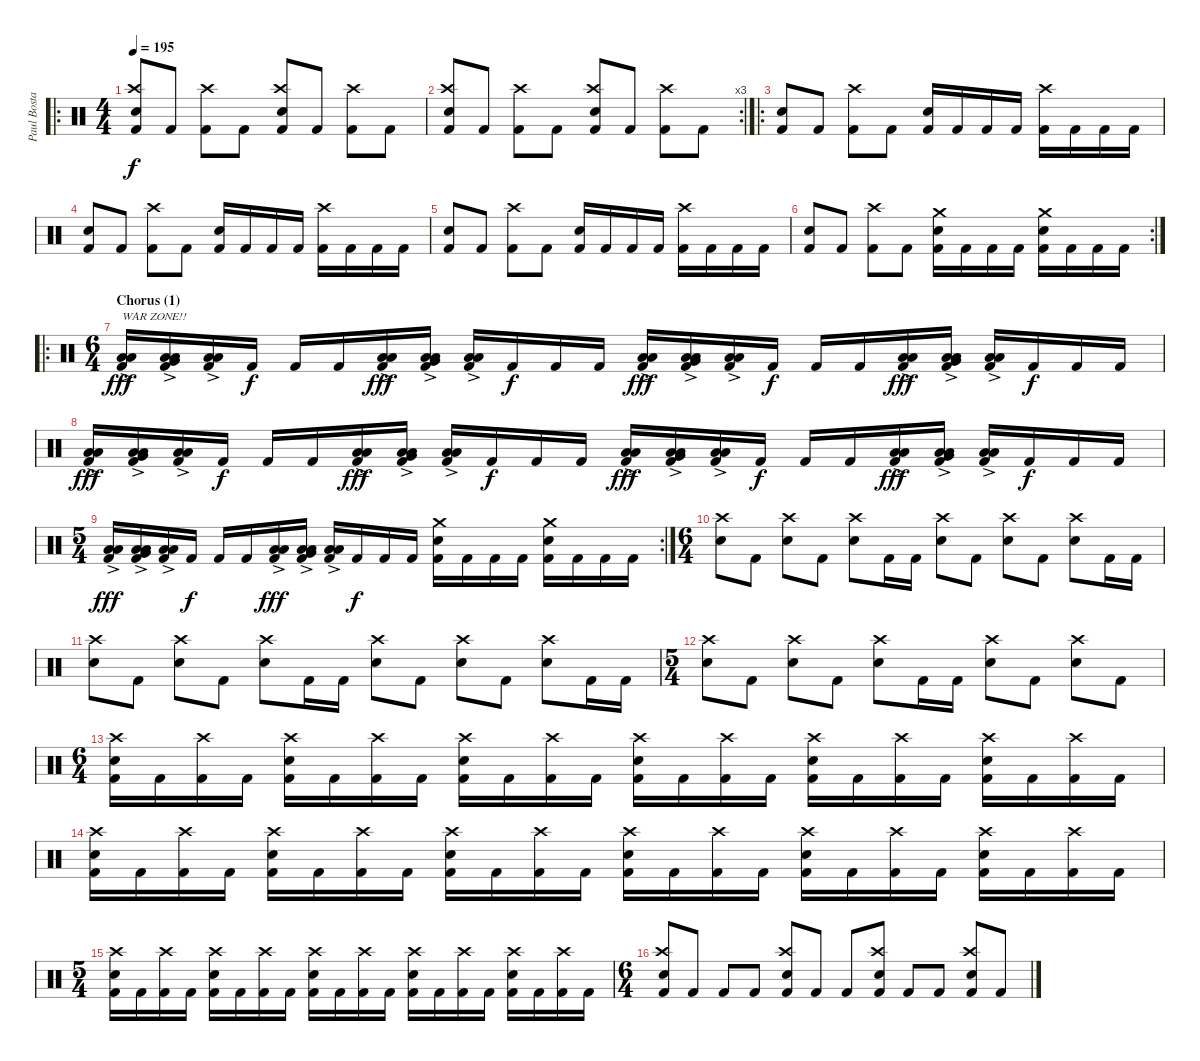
\track ("Paul Bostaph" "Paul Bosta") {instrument percussion}
\staff {score}
\articulation defaults
\ro
\ts (4 4)
\tempo 195
\clef neutral
\ks c
("Kick (hit) 2" "Crash high (hit)" "Snare (hit) 2").8{dy f} "Kick (hit) 2".8 ("Kick (hit) 2" "Crash high (hit)").8 "Kick (hit) 2".8 ("Kick (hit) 2" "Crash high (hit)" "Snare (hit) 2").8 "Kick (hit) 2".8 ("Kick (hit) 2" "Crash high (hit)").8 "Kick (hit) 2".8 |
\rc 3
("Kick (hit) 2" "Crash high (hit)" "Snare (hit) 2").8 "Kick (hit) 2".8 ("Kick (hit) 2" "Crash high (hit)").8 "Kick (hit) 2".8 ("Kick (hit) 2" "Crash high (hit)" "Snare (hit) 2").8 "Kick (hit) 2".8 ("Kick (hit) 2" "Crash high (hit)").8 "Kick (hit) 2".8 |
\ro
("Kick (hit) 2" "Snare (hit) 2").8 "Kick (hit) 2".8 ("Kick (hit) 2" "Crash high (hit)").8 "Kick (hit) 2".8 ("Kick (hit) 2" "Snare (hit) 2").16 "Kick (hit) 2".16 "Kick (hit) 2".16 "Kick (hit) 2".16 ("Kick (hit) 2" "Crash high (hit)").16 "Kick (hit) 2".16 "Kick (hit) 2".16 "Kick (hit) 2".16 |
("Kick (hit) 2" "Snare (hit) 2").8 "Kick (hit) 2".8 ("Kick (hit) 2" "Crash high (hit)").8 "Kick (hit) 2".8 ("Kick (hit) 2" "Snare (hit) 2").16 "Kick (hit) 2".16 "Kick (hit) 2".16 "Kick (hit) 2".16 ("Kick (hit) 2" "Crash high (hit)").16 "Kick (hit) 2".16 "Kick (hit) 2".16 "Kick (hit) 2".16 |
("Kick (hit) 2" "Snare (hit) 2").8 "Kick (hit) 2".8 ("Kick (hit) 2" "Crash high (hit)").8 "Kick (hit) 2".8 ("Kick (hit) 2" "Snare (hit) 2").16 "Kick (hit) 2".16 "Kick (hit) 2".16 "Kick (hit) 2".16 ("Kick (hit) 2" "Crash high (hit)").16 "Kick (hit) 2".16 "Kick (hit) 2".16 "Kick (hit) 2".16 |
\rc 2
("Kick (hit) 2" "Snare (hit) 2").8 "Kick (hit) 2".8 ("Kick (hit) 2" "Crash high (hit)").8 "Kick (hit) 2".8 ("Kick (hit) 2" "Crash medium (hit)" "Snare (hit) 2").16 "Kick (hit) 2".16 "Kick (hit) 2".16 "Kick (hit) 2".16 ("Kick (hit) 2" "Crash medium (hit)" "Snare (hit) 2").16 "Kick (hit) 2".16 "Kick (hit) 2".16 "Kick (hit) 2".16 |
\ro
\ts (6 4)
\section ("" "Chorus (1)")
("Kick (hit) 2" "Low Floor Tom (hit)"{ac} "Low Floor Tom (hit)"{ac}).16{txt "WAR ZONE!!" dy fff} ("Kick (hit) 2" "Very Low Tom (hit)" "Low Floor Tom (hit)"{ac} "Low Floor Tom (hit)"{ac}).16 ("Kick (hit) 2" "Low Floor Tom (hit)"{ac} "Low Floor Tom (hit)"{ac}).16 "Kick (hit) 2".16{dy f} "Kick (hit) 2".16 "Kick (hit) 2".16 ("Kick (hit) 2" "Low Floor Tom (hit)"{ac} "Low Floor Tom (hit)"{ac}).16{dy fff} ("Kick (hit) 2" "Very Low Tom (hit)" "Low Floor Tom (hit)"{ac} "Low Floor Tom (hit)"{ac}).16 ("Kick (hit) 2" "Low Floor Tom (hit)"{ac} "Low Floor Tom (hit)"{ac}).16 "Kick (hit) 2".16{dy f} "Kick (hit) 2".16 "Kick (hit) 2".16 ("Kick (hit) 2" "Low Floor Tom (hit)"{ac} "Low Floor Tom (hit)"{ac}).16{dy fff} ("Kick (hit) 2" "Very Low Tom (hit)" "Low Floor Tom (hit)"{ac} "Low Floor Tom (hit)"{ac}).16 ("Kick (hit) 2" "Low Floor Tom (hit)"{ac} "Low Floor Tom (hit)"{ac}).16 "Kick (hit) 2".16{dy f} "Kick (hit) 2".16 "Kick (hit) 2".16 ("Kick (hit) 2" "Low Floor Tom (hit)"{ac} "Low Floor Tom (hit)"{ac}).16{dy fff} ("Kick (hit) 2" "Very Low Tom (hit)" "Low Floor Tom (hit)"{ac} "Low Floor Tom (hit)"{ac}).16 ("Kick (hit) 2" "Low Floor Tom (hit)"{ac} "Low Floor Tom (hit)"{ac}).16 "Kick (hit) 2".16{dy f} "Kick (hit) 2".16 "Kick (hit) 2".16 |
("Kick (hit) 2" "Low Floor Tom (hit)"{ac} "Low Floor Tom (hit)"{ac}).16{dy fff} ("Kick (hit) 2" "Very Low Tom (hit)" "Low Floor Tom (hit)"{ac} "Low Floor Tom (hit)"{ac}).16 ("Kick (hit) 2" "Low Floor Tom (hit)"{ac} "Low Floor Tom (hit)"{ac}).16 "Kick (hit) 2".16{dy f} "Kick (hit) 2".16 "Kick (hit) 2".16 ("Kick (hit) 2" "Low Floor Tom (hit)"{ac} "Low Floor Tom (hit)"{ac}).16{dy fff} ("Kick (hit) 2" "Very Low Tom (hit)" "Low Floor Tom (hit)"{ac} "Low Floor Tom (hit)"{ac}).16 ("Kick (hit) 2" "Low Floor Tom (hit)"{ac} "Low Floor Tom (hit)"{ac}).16 "Kick (hit) 2".16{dy f} "Kick (hit) 2".16 "Kick (hit) 2".16 ("Kick (hit) 2" "Low Floor Tom (hit)"{ac} "Low Floor Tom (hit)"{ac}).16{dy fff} ("Kick (hit) 2" "Very Low Tom (hit)" "Low Floor Tom (hit)"{ac} "Low Floor Tom (hit)"{ac}).16 ("Kick (hit) 2" "Low Floor Tom (hit)"{ac} "Low Floor Tom (hit)"{ac}).16 "Kick (hit) 2".16{dy f} "Kick (hit) 2".16 "Kick (hit) 2".16 ("Kick (hit) 2" "Low Floor Tom (hit)"{ac} "Low Floor Tom (hit)"{ac}).16{dy fff} ("Kick (hit) 2" "Very Low Tom (hit)" "Low Floor Tom (hit)"{ac} "Low Floor Tom (hit)"{ac}).16 ("Kick (hit) 2" "Low Floor Tom (hit)"{ac} "Low Floor Tom (hit)"{ac}).16 "Kick (hit) 2".16{dy f} "Kick (hit) 2".16 "Kick (hit) 2".16 |
\rc 2
\ts (5 4)
("Kick (hit) 2" "Low Floor Tom (hit)"{ac} "Low Floor Tom (hit)"{ac}).16{dy fff} ("Kick (hit) 2" "Very Low Tom (hit)" "Low Floor Tom (hit)"{ac} "Low Floor Tom (hit)"{ac}).16 ("Kick (hit) 2" "Low Floor Tom (hit)"{ac} "Low Floor Tom (hit)"{ac}).16 "Kick (hit) 2".16{dy f} "Kick (hit) 2".16 "Kick (hit) 2".16 ("Kick (hit) 2" "Low Floor Tom (hit)"{ac} "Low Floor Tom (hit)"{ac}).16{dy fff} ("Kick (hit) 2" "Very Low Tom (hit)" "Low Floor Tom (hit)"{ac} "Low Floor Tom (hit)"{ac}).16 ("Kick (hit) 2" "Low Floor Tom (hit)"{ac} "Low Floor Tom (hit)"{ac}).16 "Kick (hit) 2".16{dy f} "Kick (hit) 2".16 "Kick (hit) 2".16 ("Kick (hit) 2" "Crash medium (hit)" "Snare (hit) 2").16 "Kick (hit) 2".16 "Kick (hit) 2".16 "Kick (hit) 2".16 ("Kick (hit) 2" "Crash medium (hit)" "Snare (hit) 2").16 "Kick (hit) 2".16 "Kick (hit) 2".16 "Kick (hit) 2".16 |
\ts (6 4)
("Crash high (hit)" "Snare (hit) 2").8 "Kick (hit) 2".8 ("Crash high (hit)" "Snare (hit) 2").8 "Kick (hit) 2".8 ("Crash high (hit)" "Snare (hit) 2").8 "Kick (hit) 2".16 "Kick (hit) 2".16 ("Crash high (hit)" "Snare (hit) 2").8 "Kick (hit) 2".8 ("Crash high (hit)" "Snare (hit) 2").8 "Kick (hit) 2".8 ("Crash high (hit)" "Snare (hit) 2").8 "Kick (hit) 2".16 "Kick (hit) 2".16 |
("Crash high (hit)" "Snare (hit) 2").8 "Kick (hit) 2".8 ("Crash high (hit)" "Snare (hit) 2").8 "Kick (hit) 2".8 ("Crash high (hit)" "Snare (hit) 2").8 "Kick (hit) 2".16 "Kick (hit) 2".16 ("Crash high (hit)" "Snare (hit) 2").8 "Kick (hit) 2".8 ("Crash high (hit)" "Snare (hit) 2").8 "Kick (hit) 2".8 ("Crash high (hit)" "Snare (hit) 2").8 "Kick (hit) 2".16 "Kick (hit) 2".16 |
\ts (5 4)
("Crash high (hit)" "Snare (hit) 2").8 "Kick (hit) 2".8 ("Crash high (hit)" "Snare (hit) 2").8 "Kick (hit) 2".8 ("Crash high (hit)" "Snare (hit) 2").8 "Kick (hit) 2".16 "Kick (hit) 2".16 ("Crash high (hit)" "Snare (hit) 2").8 "Kick (hit) 2".8 ("Crash high (hit)" "Snare (hit) 2").8 "Kick (hit) 2".8 |
\ts (6 4)
("Kick (hit) 2" "Crash high (hit)" "Snare (hit) 2").16 "Kick (hit) 2".16 ("Kick (hit) 2" "Crash high (hit)").16 "Kick (hit) 2".16 ("Kick (hit) 2" "Crash high (hit)" "Snare (hit) 2").16 "Kick (hit) 2".16 ("Kick (hit) 2" "Crash high (hit)").16 "Kick (hit) 2".16 ("Kick (hit) 2" "Crash high (hit)" "Snare (hit) 2").16 "Kick (hit) 2".16 ("Kick (hit) 2" "Crash high (hit)").16 "Kick (hit) 2".16 ("Kick (hit) 2" "Crash high (hit)" "Snare (hit) 2").16 "Kick (hit) 2".16 ("Kick (hit) 2" "Crash high (hit)").16 "Kick (hit) 2".16 ("Kick (hit) 2" "Crash high (hit)" "Snare (hit) 2").16 "Kick (hit) 2".16 ("Kick (hit) 2" "Crash high (hit)").16 "Kick (hit) 2".16 ("Kick (hit) 2" "Crash high (hit)" "Snare (hit) 2").16 "Kick (hit) 2".16 ("Kick (hit) 2" "Crash high (hit)").16 "Kick (hit) 2".16 |
("Kick (hit) 2" "Crash high (hit)" "Snare (hit) 2").16 "Kick (hit) 2".16 ("Kick (hit) 2" "Crash high (hit)").16 "Kick (hit) 2".16 ("Kick (hit) 2" "Crash high (hit)" "Snare (hit) 2").16 "Kick (hit) 2".16 ("Kick (hit) 2" "Crash high (hit)").16 "Kick (hit) 2".16 ("Kick (hit) 2" "Crash high (hit)" "Snare (hit) 2").16 "Kick (hit) 2".16 ("Kick (hit) 2" "Crash high (hit)").16 "Kick (hit) 2".16 ("Kick (hit) 2" "Crash high (hit)" "Snare (hit) 2").16 "Kick (hit) 2".16 ("Kick (hit) 2" "Crash high (hit)").16 "Kick (hit) 2".16 ("Kick (hit) 2" "Crash high (hit)" "Snare (hit) 2").16 "Kick (hit) 2".16 ("Kick (hit) 2" "Crash high (hit)").16 "Kick (hit) 2".16 ("Kick (hit) 2" "Crash high (hit)" "Snare (hit) 2").16 "Kick (hit) 2".16 ("Kick (hit) 2" "Crash high (hit)").16 "Kick (hit) 2".16 |
\ts (5 4)
("Kick (hit) 2" "Crash high (hit)" "Snare (hit) 2").16 "Kick (hit) 2".16 ("Kick (hit) 2" "Crash high (hit)").16 "Kick (hit) 2".16 ("Kick (hit) 2" "Crash high (hit)" "Snare (hit) 2").16 "Kick (hit) 2".16 ("Kick (hit) 2" "Crash high (hit)").16 "Kick (hit) 2".16 ("Kick (hit) 2" "Crash high (hit)" "Snare (hit) 2").16 "Kick (hit) 2".16 ("Kick (hit) 2" "Crash high (hit)").16 "Kick (hit) 2".16 ("Kick (hit) 2" "Crash high (hit)" "Snare (hit) 2").16 "Kick (hit) 2".16 ("Kick (hit) 2" "Crash high (hit)").16 "Kick (hit) 2".16 ("Kick (hit) 2" "Crash high (hit)" "Snare (hit) 2").16 "Kick (hit) 2".16 ("Kick (hit) 2" "Crash high (hit)").16 "Kick (hit) 2".16 |
\ts (6 4)
("Kick (hit) 2" "Crash high (hit)" "Snare (hit) 2").8 "Kick (hit) 2".8 "Kick (hit) 2".8 "Kick (hit) 2".8 ("Kick (hit) 2" "Crash high (hit)" "Snare (hit) 2").8 "Kick (hit) 2".8 "Kick (hit) 2".8 ("Kick (hit) 2" "Crash high (hit)" "Snare (hit) 2").8 "Kick (hit) 2".8 "Kick (hit) 2".8 ("Kick (hit) 2" "Crash high (hit)" "Snare (hit) 2").8 "Kick (hit) 2".8
